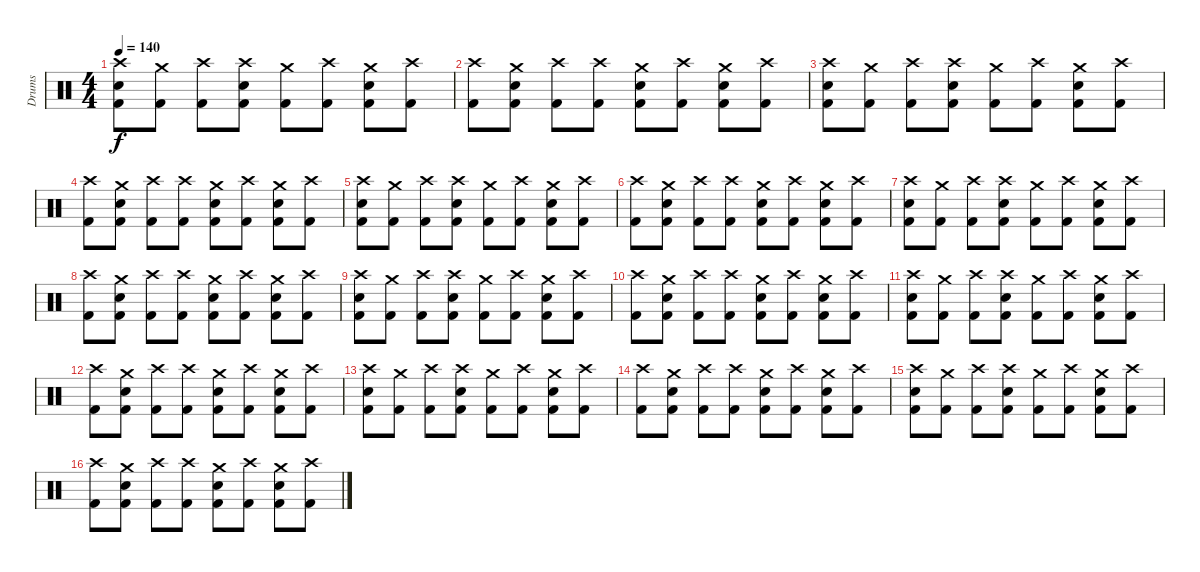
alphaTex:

\track ("Drums" "Drums") {instrument percussion}
\staff {score}
\articulation defaults
\ts (4 4)
\tempo 140
\clef neutral
\ks c
("Crash high (hit)" "Electric Snare (hit)" "Kick (hit) 2").8{dy f} ("Crash medium (hit)" "Kick (hit) 2").8 ("Crash high (hit)" "Kick (hit) 2").8 ("Crash high (hit)" "Electric Snare (hit)" "Kick (hit) 2").8 ("Crash medium (hit)" "Kick (hit) 2").8 ("Crash high (hit)" "Kick (hit) 2").8 ("Crash medium (hit)" "Electric Snare (hit)" "Kick (hit) 2").8 ("Crash high (hit)" "Kick (hit) 2").8 |
("Crash high (hit)" "Kick (hit) 2").8 ("Crash medium (hit)" "Electric Snare (hit)" "Kick (hit) 2").8 ("Crash high (hit)" "Kick (hit) 2").8 ("Crash high (hit)" "Kick (hit) 2").8 ("Crash medium (hit)" "Electric Snare (hit)" "Kick (hit) 2").8 ("Crash high (hit)" "Kick (hit) 2").8 ("Crash medium (hit)" "Electric Snare (hit)" "Kick (hit) 2").8 ("Crash high (hit)" "Kick (hit) 2").8 |
("Crash high (hit)" "Electric Snare (hit)" "Kick (hit) 2").8 ("Crash medium (hit)" "Kick (hit) 2").8 ("Crash high (hit)" "Kick (hit) 2").8 ("Crash high (hit)" "Electric Snare (hit)" "Kick (hit) 2").8 ("Crash medium (hit)" "Kick (hit) 2").8 ("Crash high (hit)" "Kick (hit) 2").8 ("Crash medium (hit)" "Electric Snare (hit)" "Kick (hit) 2").8 ("Crash high (hit)" "Kick (hit) 2").8 |
("Crash high (hit)" "Kick (hit) 2").8 ("Crash medium (hit)" "Electric Snare (hit)" "Kick (hit) 2").8 ("Crash high (hit)" "Kick (hit) 2").8 ("Crash high (hit)" "Kick (hit) 2").8 ("Crash medium (hit)" "Electric Snare (hit)" "Kick (hit) 2").8 ("Crash high (hit)" "Kick (hit) 2").8 ("Crash medium (hit)" "Electric Snare (hit)" "Kick (hit) 2").8 ("Crash high (hit)" "Kick (hit) 2").8 |
("Crash high (hit)" "Electric Snare (hit)" "Kick (hit) 2").8 ("Crash medium (hit)" "Kick (hit) 2").8 ("Crash high (hit)" "Kick (hit) 2").8 ("Crash high (hit)" "Electric Snare (hit)" "Kick (hit) 2").8 ("Crash medium (hit)" "Kick (hit) 2").8 ("Crash high (hit)" "Kick (hit) 2").8 ("Crash medium (hit)" "Electric Snare (hit)" "Kick (hit) 2").8 ("Crash high (hit)" "Kick (hit) 2").8 |
("Crash high (hit)" "Kick (hit) 2").8 ("Crash medium (hit)" "Electric Snare (hit)" "Kick (hit) 2").8 ("Crash high (hit)" "Kick (hit) 2").8 ("Crash high (hit)" "Kick (hit) 2").8 ("Crash medium (hit)" "Electric Snare (hit)" "Kick (hit) 2").8 ("Crash high (hit)" "Kick (hit) 2").8 ("Crash medium (hit)" "Electric Snare (hit)" "Kick (hit) 2").8 ("Crash high (hit)" "Kick (hit) 2").8 |
("Crash high (hit)" "Electric Snare (hit)" "Kick (hit) 2").8 ("Crash medium (hit)" "Kick (hit) 2").8 ("Crash high (hit)" "Kick (hit) 2").8 ("Crash high (hit)" "Electric Snare (hit)" "Kick (hit) 2").8 ("Crash medium (hit)" "Kick (hit) 2").8 ("Crash high (hit)" "Kick (hit) 2").8 ("Crash medium (hit)" "Electric Snare (hit)" "Kick (hit) 2").8 ("Crash high (hit)" "Kick (hit) 2").8 |
("Crash high (hit)" "Kick (hit) 2").8 ("Crash medium (hit)" "Electric Snare (hit)" "Kick (hit) 2").8 ("Crash high (hit)" "Kick (hit) 2").8 ("Crash high (hit)" "Kick (hit) 2").8 ("Crash medium (hit)" "Electric Snare (hit)" "Kick (hit) 2").8 ("Crash high (hit)" "Kick (hit) 2").8 ("Crash medium (hit)" "Electric Snare (hit)" "Kick (hit) 2").8 ("Crash high (hit)" "Kick (hit) 2").8 |
("Crash high (hit)" "Electric Snare (hit)" "Kick (hit) 2").8 ("Crash medium (hit)" "Kick (hit) 2").8 ("Crash high (hit)" "Kick (hit) 2").8 ("Crash high (hit)" "Electric Snare (hit)" "Kick (hit) 2").8 ("Crash medium (hit)" "Kick (hit) 2").8 ("Crash high (hit)" "Kick (hit) 2").8 ("Crash medium (hit)" "Electric Snare (hit)" "Kick (hit) 2").8 ("Crash high (hit)" "Kick (hit) 2").8 |
("Crash high (hit)" "Kick (hit) 2").8 ("Crash medium (hit)" "Electric Snare (hit)" "Kick (hit) 2").8 ("Crash high (hit)" "Kick (hit) 2").8 ("Crash high (hit)" "Kick (hit) 2").8 ("Crash medium (hit)" "Electric Snare (hit)" "Kick (hit) 2").8 ("Crash high (hit)" "Kick (hit) 2").8 ("Crash medium (hit)" "Electric Snare (hit)" "Kick (hit) 2").8 ("Crash high (hit)" "Kick (hit) 2").8 |
("Crash high (hit)" "Electric Snare (hit)" "Kick (hit) 2").8 ("Crash medium (hit)" "Kick (hit) 2").8 ("Crash high (hit)" "Kick (hit) 2").8 ("Crash high (hit)" "Electric Snare (hit)" "Kick (hit) 2").8 ("Crash medium (hit)" "Kick (hit) 2").8 ("Crash high (hit)" "Kick (hit) 2").8 ("Crash medium (hit)" "Electric Snare (hit)" "Kick (hit) 2").8 ("Crash high (hit)" "Kick (hit) 2").8 |
("Crash high (hit)" "Kick (hit) 2").8 ("Crash medium (hit)" "Electric Snare (hit)" "Kick (hit) 2").8 ("Crash high (hit)" "Kick (hit) 2").8 ("Crash high (hit)" "Kick (hit) 2").8 ("Crash medium (hit)" "Electric Snare (hit)" "Kick (hit) 2").8 ("Crash high (hit)" "Kick (hit) 2").8 ("Crash medium (hit)" "Electric Snare (hit)" "Kick (hit) 2").8 ("Crash high (hit)" "Kick (hit) 2").8 |
("Crash high (hit)" "Electric Snare (hit)" "Kick (hit) 2").8 ("Crash medium (hit)" "Kick (hit) 2").8 ("Crash high (hit)" "Kick (hit) 2").8 ("Crash high (hit)" "Electric Snare (hit)" "Kick (hit) 2").8 ("Crash medium (hit)" "Kick (hit) 2").8 ("Crash high (hit)" "Kick (hit) 2").8 ("Crash medium (hit)" "Electric Snare (hit)" "Kick (hit) 2").8 ("Crash high (hit)" "Kick (hit) 2").8 |
("Crash high (hit)" "Kick (hit) 2").8 ("Crash medium (hit)" "Electric Snare (hit)" "Kick (hit) 2").8 ("Crash high (hit)" "Kick (hit) 2").8 ("Crash high (hit)" "Kick (hit) 2").8 ("Crash medium (hit)" "Electric Snare (hit)" "Kick (hit) 2").8 ("Crash high (hit)" "Kick (hit) 2").8 ("Crash medium (hit)" "Electric Snare (hit)" "Kick (hit) 2").8 ("Crash high (hit)" "Kick (hit) 2").8 |
("Crash high (hit)" "Electric Snare (hit)" "Kick (hit) 2").8 ("Crash medium (hit)" "Kick (hit) 2").8 ("Crash high (hit)" "Kick (hit) 2").8 ("Crash high (hit)" "Electric Snare (hit)" "Kick (hit) 2").8 ("Crash medium (hit)" "Kick (hit) 2").8 ("Crash high (hit)" "Kick (hit) 2").8 ("Crash medium (hit)" "Electric Snare (hit)" "Kick (hit) 2").8 ("Crash high (hit)" "Kick (hit) 2").8 |
("Crash high (hit)" "Kick (hit) 2").8 ("Crash medium (hit)" "Electric Snare (hit)" "Kick (hit) 2").8 ("Crash high (hit)" "Kick (hit) 2").8 ("Crash high (hit)" "Kick (hit) 2").8 ("Crash medium (hit)" "Electric Snare (hit)" "Kick (hit) 2").8 ("Crash high (hit)" "Kick (hit) 2").8 ("Crash medium (hit)" "Electric Snare (hit)" "Kick (hit) 2").8 ("Crash high (hit)" "Kick (hit) 2").8
